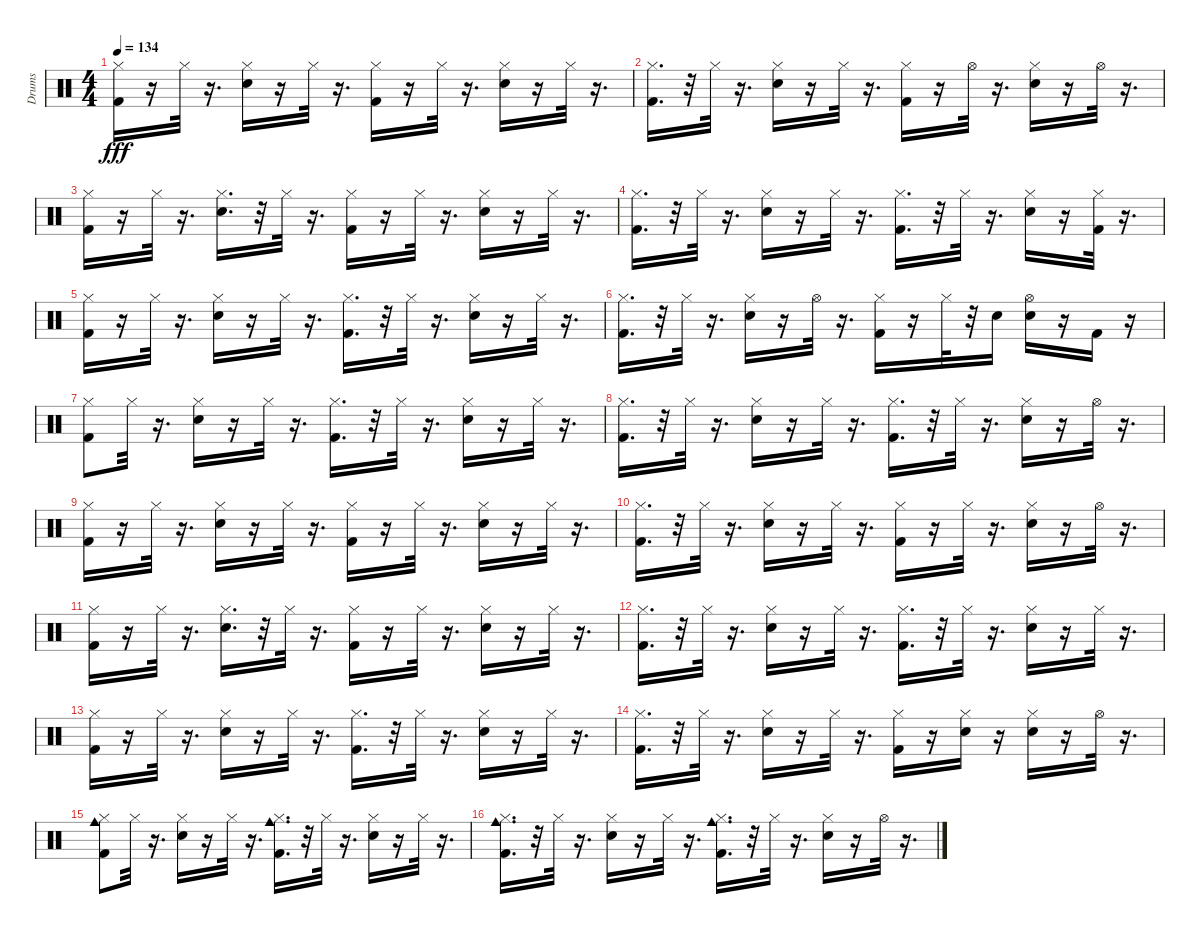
\track ("Drums" "Drums") {instrument percussion}
\staff {score}
\articulation defaults
\ts (4 4)
\tempo 134
\clef neutral
\ks c
("Kick (hit) 2" "Hi-Hat (closed)").16{dy fff} r.16 "Hi-Hat (closed)".32 r.16{d} ("Snare (hit) 2" "Hi-Hat (closed)").16 r.16 "Hi-Hat (closed)".32 r.16{d} ("Kick (hit) 2" "Hi-Hat (closed)").16 r.16 "Hi-Hat (closed)".32 r.16{d} ("Snare (hit) 2" "Hi-Hat (closed)").16 r.16 "Hi-Hat (closed)".32 r.16{d} |
("Kick (hit) 2" "Hi-Hat (closed)").16{d} r.32 "Hi-Hat (closed)".32 r.16{d} ("Snare (hit) 2" "Hi-Hat (closed)").16 r.16 "Hi-Hat (closed)".32 r.16{d} ("Kick (hit) 2" "Hi-Hat (closed)").16 r.16 "Hi-Hat (open)".32 r.16{d} ("Snare (hit) 2" "Hi-Hat (closed)").16 r.16 "Hi-Hat (open)".32 r.16{d} |
("Kick (hit) 2" "Hi-Hat (closed)").16 r.16 "Hi-Hat (closed)".32 r.16{d} ("Snare (hit) 2" "Hi-Hat (closed)").16{d} r.32 "Hi-Hat (closed)".32 r.16{d} ("Kick (hit) 2" "Hi-Hat (closed)").16 r.16 "Hi-Hat (closed)".32 r.16{d} ("Snare (hit) 2" "Hi-Hat (closed)").16 r.16 "Hi-Hat (closed)".32 r.16{d} |
("Kick (hit) 2" "Hi-Hat (closed)").16{d} r.32 "Hi-Hat (closed)".32 r.16{d} ("Snare (hit) 2" "Hi-Hat (closed)").16 r.16 "Hi-Hat (closed)".32 r.16{d} ("Kick (hit) 2" "Hi-Hat (closed)").16{d} r.32 "Hi-Hat (closed)".32 r.16{d} ("Snare (hit) 2" "Hi-Hat (closed)").16 r.16 ("Kick (hit) 2" "Hi-Hat (closed)").32 r.16{d} |
("Kick (hit) 2" "Hi-Hat (closed)").16 r.16 "Hi-Hat (closed)".32 r.16{d} ("Snare (hit) 2" "Hi-Hat (closed)").16 r.16 "Hi-Hat (closed)".32 r.16{d} ("Kick (hit) 2" "Hi-Hat (closed)").16{d} r.32 "Hi-Hat (closed)".32 r.16{d} ("Snare (hit) 2" "Hi-Hat (closed)").16 r.16 "Hi-Hat (closed)".32 r.16{d} |
("Kick (hit) 2" "Hi-Hat (closed)").16{d} r.32 "Hi-Hat (closed)".32 r.16{d} ("Snare (hit) 2" "Hi-Hat (closed)").16 r.16 "Hi-Hat (open)".32 r.16{d} ("Kick (hit) 2" "Hi-Hat (closed)").16 r.16 "Hi-Hat (closed)".32 r.32 "Snare (hit) 2".16 ("Snare (hit) 2" "Hi-Hat (open)").16 r.16 "Kick (hit) 2".16 r.16 |
("Kick (hit) 2" "Hi-Hat (closed)").8 "Hi-Hat (closed)".32 r.16{d} ("Snare (hit) 2" "Hi-Hat (closed)").16 r.16 "Hi-Hat (closed)".32 r.16{d} ("Kick (hit) 2" "Hi-Hat (closed)").16{d} r.32 "Hi-Hat (closed)".32 r.16{d} ("Snare (hit) 2" "Hi-Hat (closed)").16 r.16 "Hi-Hat (closed)".32 r.16{d} |
("Kick (hit) 2" "Hi-Hat (closed)").16{d} r.32 "Hi-Hat (closed)".32 r.16{d} ("Snare (hit) 2" "Hi-Hat (closed)").16 r.16 "Hi-Hat (closed)".32 r.16{d} ("Kick (hit) 2" "Hi-Hat (closed)").16{d} r.32 "Hi-Hat (closed)".32 r.16{d} ("Snare (hit) 2" "Hi-Hat (closed)").16 r.16 "Hi-Hat (open)".32 r.16{d} |
("Kick (hit) 2" "Hi-Hat (closed)").16 r.16 "Hi-Hat (closed)".32 r.16{d} ("Snare (hit) 2" "Hi-Hat (closed)").16 r.16 "Hi-Hat (closed)".32 r.16{d} ("Kick (hit) 2" "Hi-Hat (closed)").16 r.16 "Hi-Hat (closed)".32 r.16{d} ("Snare (hit) 2" "Hi-Hat (closed)").16 r.16 "Hi-Hat (closed)".32 r.16{d} |
("Kick (hit) 2" "Hi-Hat (closed)").16{d} r.32 "Hi-Hat (closed)".32 r.16{d} ("Snare (hit) 2" "Hi-Hat (closed)").16 r.16 "Hi-Hat (closed)".32 r.16{d} ("Kick (hit) 2" "Hi-Hat (closed)").16 r.16 "Hi-Hat (closed)".32 r.16{d} ("Snare (hit) 2" "Hi-Hat (closed)").16 r.16 "Hi-Hat (open)".32 r.16{d} |
("Kick (hit) 2" "Hi-Hat (closed)").16 r.16 "Hi-Hat (closed)".32 r.16{d} ("Snare (hit) 2" "Hi-Hat (closed)").16{d} r.32 "Hi-Hat (closed)".32 r.16{d} ("Kick (hit) 2" "Hi-Hat (closed)").16 r.16 "Hi-Hat (closed)".32 r.16{d} ("Snare (hit) 2" "Hi-Hat (closed)").16 r.16 "Hi-Hat (closed)".32 r.16{d} |
("Kick (hit) 2" "Hi-Hat (closed)").16{d} r.32 "Hi-Hat (closed)".32 r.16{d} ("Snare (hit) 2" "Hi-Hat (closed)").16 r.16 "Hi-Hat (closed)".32 r.16{d} ("Kick (hit) 2" "Hi-Hat (closed)").16{d} r.32 "Hi-Hat (closed)".32 r.16{d} ("Snare (hit) 2" "Hi-Hat (closed)").16 r.16 "Hi-Hat (closed)".32 r.16{d} |
("Kick (hit) 2" "Hi-Hat (closed)").16 r.16 "Hi-Hat (closed)".32 r.16{d} ("Snare (hit) 2" "Hi-Hat (closed)").16 r.16 "Hi-Hat (closed)".32 r.16{d} ("Kick (hit) 2" "Hi-Hat (closed)").16{d} r.32 "Hi-Hat (closed)".32 r.16{d} ("Snare (hit) 2" "Hi-Hat (closed)").16 r.16 "Hi-Hat (closed)".32 r.16{d} |
("Kick (hit) 2" "Hi-Hat (closed)").16{d} r.32 "Hi-Hat (closed)".32 r.16{d} ("Snare (hit) 2" "Hi-Hat (closed)").16 r.16 "Hi-Hat (closed)".32 r.16{d} ("Kick (hit) 2" "Hi-Hat (closed)").16 r.16 ("Snare (hit) 2" "Hi-Hat (closed)").16 r.16 ("Snare (hit) 2" "Hi-Hat (closed)").16 r.16 "Hi-Hat (open)".32 r.16{d} |
("Kick (hit) 2" "Hi-Hat (closed)" "Cowbell medium (hit)").8 "Hi-Hat (closed)".32 r.16{d} ("Snare (hit) 2" "Hi-Hat (closed)").16 r.16 "Hi-Hat (closed)".32 r.16{d} ("Kick (hit) 2" "Hi-Hat (closed)" "Cowbell medium (hit)").16{d} r.32 "Hi-Hat (closed)".32 r.16{d} ("Snare (hit) 2" "Hi-Hat (closed)").16 r.16 "Hi-Hat (closed)".32 r.16{d} |
("Kick (hit) 2" "Hi-Hat (closed)" "Cowbell medium (hit)").16{d} r.32 "Hi-Hat (closed)".32 r.16{d} ("Snare (hit) 2" "Hi-Hat (closed)").16 r.16 "Hi-Hat (closed)".32 r.16{d} ("Kick (hit) 2" "Hi-Hat (closed)" "Cowbell medium (hit)").16{d} r.32 "Hi-Hat (closed)".32 r.16{d} ("Snare (hit) 2" "Hi-Hat (closed)").16 r.16 "Hi-Hat (open)".32 r.16{d}
